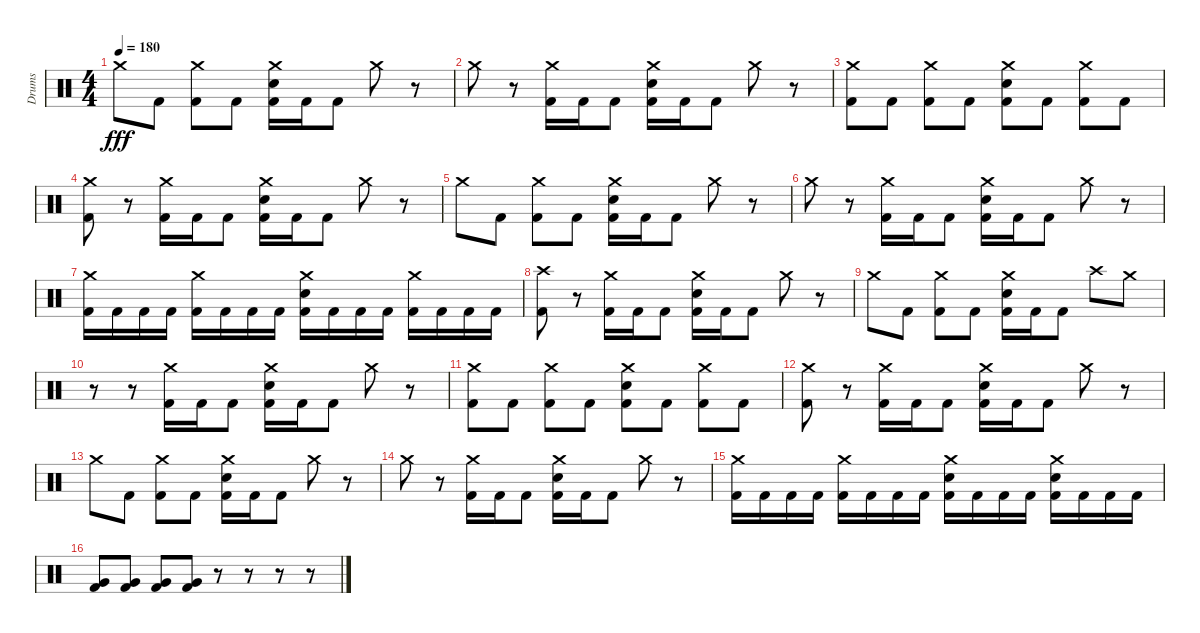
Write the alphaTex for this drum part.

\track ("Drums " "Drums ") {instrument percussion}
\staff {score}
\articulation defaults
\ts (4 4)
\tempo 180
\clef neutral
\ks c "Crash medium (hit)".8{dy fff} "Kick (hit) 2".8
("Crash medium (hit)" "Kick (hit) 2").8 "Kick (hit) 2".8 ("Crash medium (hit)" "Snare (hit) 2" "Kick (hit) 2").16 "Kick (hit) 2".16 "Kick (hit) 2".8 "Crash medium (hit)".8 r.8 |
"Crash medium (hit)".8 r.8 ("Crash medium (hit)" "Kick (hit) 2").16 "Kick (hit) 2".16 "Kick (hit) 2".8 ("Crash medium (hit)" "Snare (hit) 2" "Kick (hit) 2").16 "Kick (hit) 2".16 "Kick (hit) 2".8 "Crash medium (hit)".8 r.8 |
("Crash medium (hit)" "Kick (hit) 2").8 "Kick (hit) 2".8 ("Crash medium (hit)" "Kick (hit) 2").8 "Kick (hit) 2".8 ("Crash medium (hit)" "Snare (hit) 2" "Kick (hit) 2").8 "Kick (hit) 2".8 ("Crash medium (hit)" "Kick (hit) 2").8 "Kick (hit) 2".8 |
("Crash medium (hit)" "Kick (hit) 2").8 r.8 ("Crash medium (hit)" "Kick (hit) 2").16 "Kick (hit) 2".16 "Kick (hit) 2".8 ("Crash medium (hit)" "Snare (hit) 2" "Kick (hit) 2").16 "Kick (hit) 2".16 "Kick (hit) 2".8 "Crash medium (hit)".8 r.8 |
"Crash medium (hit)".8 "Kick (hit) 2".8 ("Crash medium (hit)" "Kick (hit) 2").8 "Kick (hit) 2".8 ("Crash medium (hit)" "Snare (hit) 2" "Kick (hit) 2").16 "Kick (hit) 2".16 "Kick (hit) 2".8 "Crash medium (hit)".8 r.8 |
"Crash medium (hit)".8 r.8 ("Crash medium (hit)" "Kick (hit) 2").16 "Kick (hit) 2".16 "Kick (hit) 2".8 ("Crash medium (hit)" "Snare (hit) 2" "Kick (hit) 2").16 "Kick (hit) 2".16 "Kick (hit) 2".8 "Crash medium (hit)".8 r.8 |
("Crash medium (hit)" "Kick (hit) 2").16 "Kick (hit) 2".16 "Kick (hit) 2".16 "Kick (hit) 2".16 ("Crash medium (hit)" "Kick (hit) 2").16 "Kick (hit) 2".16 "Kick (hit) 2".16 "Kick (hit) 2".16 ("Crash medium (hit)" "Snare (hit) 2" "Kick (hit) 2").16 "Kick (hit) 2".16 "Kick (hit) 2".16 "Kick (hit) 2".16 ("Crash medium (hit)" "Kick (hit) 2").16 "Kick (hit) 2".16 "Kick (hit) 2".16 "Kick (hit) 2".16 |
("Crash high (hit)" "Kick (hit) 2").8 r.8 ("Crash medium (hit)" "Kick (hit) 2").16 "Kick (hit) 2".16 "Kick (hit) 2".8 ("Crash medium (hit)" "Snare (hit) 2" "Kick (hit) 2").16 "Kick (hit) 2".16 "Kick (hit) 2".8 "Crash medium (hit)".8 r.8 |
"Crash medium (hit)".8 "Kick (hit) 2".8 ("Crash medium (hit)" "Kick (hit) 2").8 "Kick (hit) 2".8 ("Crash medium (hit)" "Snare (hit) 2" "Kick (hit) 2").16 "Kick (hit) 2".16 "Kick (hit) 2".8 "Crash high (hit)".8 "Crash medium (hit)".8 |
r.8 r.8 ("Crash medium (hit)" "Kick (hit) 2").16 "Kick (hit) 2".16 "Kick (hit) 2".8 ("Crash medium (hit)" "Snare (hit) 2" "Kick (hit) 2").16 "Kick (hit) 2".16 "Kick (hit) 2".8 "Crash medium (hit)".8 r.8 |
("Crash medium (hit)" "Kick (hit) 2").8 "Kick (hit) 2".8 ("Crash medium (hit)" "Kick (hit) 2").8 "Kick (hit) 2".8 ("Crash medium (hit)" "Snare (hit) 2" "Kick (hit) 2").8 "Kick (hit) 2".8 ("Crash medium (hit)" "Kick (hit) 2").8 "Kick (hit) 2".8 |
("Crash medium (hit)" "Kick (hit) 2").8 r.8 ("Crash medium (hit)" "Kick (hit) 2").16 "Kick (hit) 2".16 "Kick (hit) 2".8 ("Crash medium (hit)" "Snare (hit) 2" "Kick (hit) 2").16 "Kick (hit) 2".16 "Kick (hit) 2".8 "Crash medium (hit)".8 r.8 |
"Crash medium (hit)".8 "Kick (hit) 2".8 ("Crash medium (hit)" "Kick (hit) 2").8 "Kick (hit) 2".8 ("Crash medium (hit)" "Snare (hit) 2" "Kick (hit) 2").16 "Kick (hit) 2".16 "Kick (hit) 2".8 "Crash medium (hit)".8 r.8 |
"Crash medium (hit)".8 r.8 ("Crash medium (hit)" "Kick (hit) 2").16 "Kick (hit) 2".16 "Kick (hit) 2".8 ("Crash medium (hit)" "Snare (hit) 2" "Kick (hit) 2").16 "Kick (hit) 2".16 "Kick (hit) 2".8 "Crash medium (hit)".8 r.8 |
("Crash medium (hit)" "Kick (hit) 2").16 "Kick (hit) 2".16 "Kick (hit) 2".16 "Kick (hit) 2".16 ("Crash medium (hit)" "Kick (hit) 2").16 "Kick (hit) 2".16 "Kick (hit) 2".16 "Kick (hit) 2".16 ("Crash medium (hit)" "Snare (hit) 2" "Kick (hit) 2").16 "Kick (hit) 2".16 "Kick (hit) 2".16 "Kick (hit) 2".16 ("Crash medium (hit)" "Snare (hit) 2" "Kick (hit) 2").16 "Kick (hit) 2".16 "Kick (hit) 2".16 "Kick (hit) 2".16 |
("Very Low Tom (hit)" "Kick (hit) 2").8 ("Very Low Tom (hit)" "Kick (hit) 2").8 ("Very Low Tom (hit)" "Kick (hit) 2").8 ("Very Low Tom (hit)" "Kick (hit) 2").8 r.8 r.8 r.8 r.8
